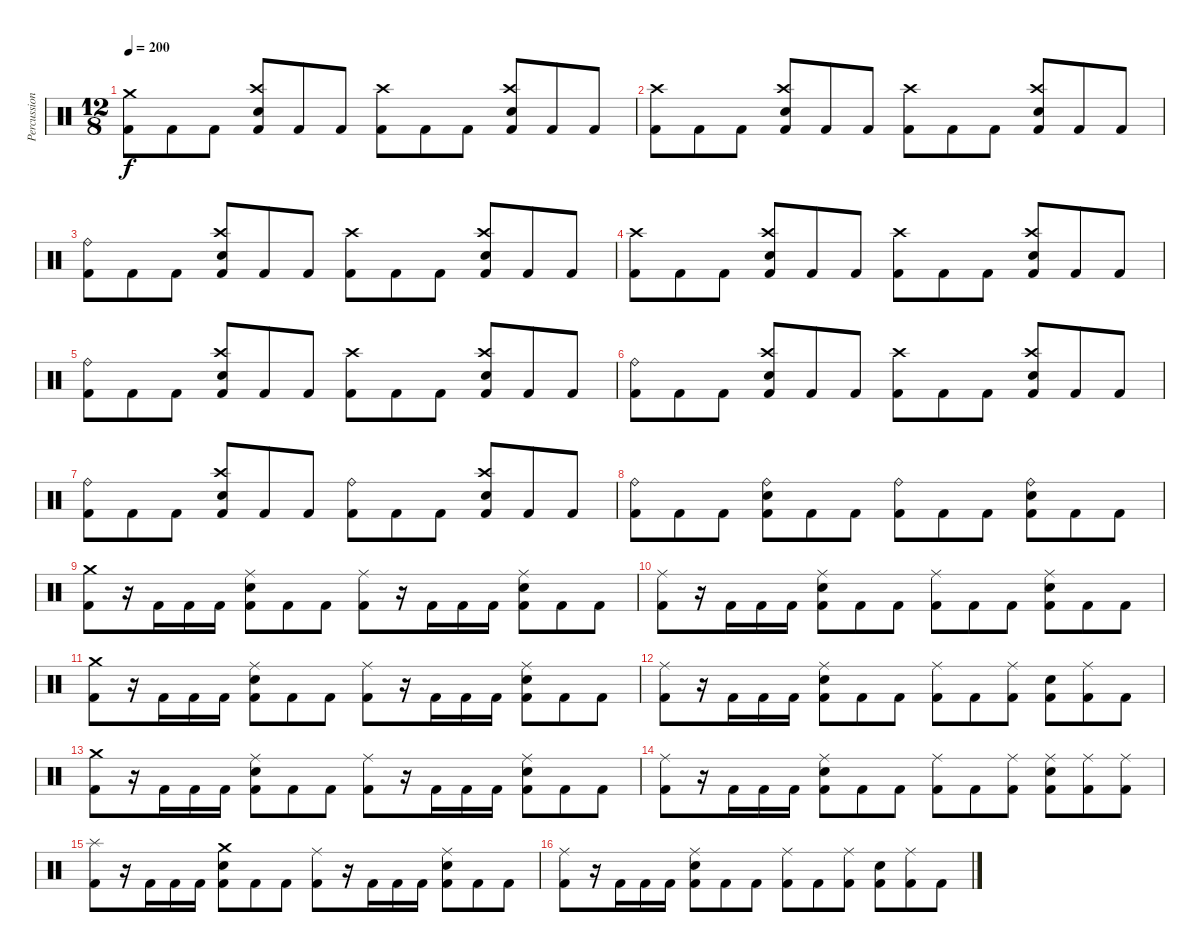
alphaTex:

\track ("Percussion" "Percussion") {instrument percussion}
\staff {score}
\articulation defaults
\ts (12 8)
\tempo 200
\clef neutral
\ks c
("Crash medium (hit)" "Kick (hit) 2").8{dy f} "Kick (hit) 2".8 "Kick (hit) 2".8 ("Crash high (hit)" "Snare (hit) 2" "Kick (hit) 2").8 "Kick (hit) 2".8 "Kick (hit) 2".8 ("Crash high (hit)" "Kick (hit) 2").8 "Kick (hit) 2".8 "Kick (hit) 2".8 ("Crash high (hit)" "Snare (hit) 2" "Kick (hit) 2").8 "Kick (hit) 2".8 "Kick (hit) 2".8 |
("Crash high (hit)" "Kick (hit) 2").8 "Kick (hit) 2".8 "Kick (hit) 2".8 ("Crash high (hit)" "Snare (hit) 2" "Kick (hit) 2").8 "Kick (hit) 2".8 "Kick (hit) 2".8 ("Crash high (hit)" "Kick (hit) 2").8 "Kick (hit) 2".8 "Kick (hit) 2".8 ("Crash high (hit)" "Snare (hit) 2" "Kick (hit) 2").8 "Kick (hit) 2".8 "Kick (hit) 2".8 |
("Ride (bell)" "Kick (hit) 2").8 "Kick (hit) 2".8 "Kick (hit) 2".8 ("Crash high (hit)" "Snare (hit) 2" "Kick (hit) 2").8 "Kick (hit) 2".8 "Kick (hit) 2".8 ("Crash high (hit)" "Kick (hit) 2").8 "Kick (hit) 2".8 "Kick (hit) 2".8 ("Crash high (hit)" "Snare (hit) 2" "Kick (hit) 2").8 "Kick (hit) 2".8 "Kick (hit) 2".8 |
("Crash high (hit)" "Kick (hit) 2").8 "Kick (hit) 2".8 "Kick (hit) 2".8 ("Crash high (hit)" "Snare (hit) 2" "Kick (hit) 2").8 "Kick (hit) 2".8 "Kick (hit) 2".8 ("Crash high (hit)" "Kick (hit) 2").8 "Kick (hit) 2".8 "Kick (hit) 2".8 ("Crash high (hit)" "Snare (hit) 2" "Kick (hit) 2").8 "Kick (hit) 2".8 "Kick (hit) 2".8 |
("Ride (bell)" "Kick (hit) 2").8 "Kick (hit) 2".8 "Kick (hit) 2".8 ("Crash high (hit)" "Snare (hit) 2" "Kick (hit) 2").8 "Kick (hit) 2".8 "Kick (hit) 2".8 ("Crash high (hit)" "Kick (hit) 2").8 "Kick (hit) 2".8 "Kick (hit) 2".8 ("Crash high (hit)" "Snare (hit) 2" "Kick (hit) 2").8 "Kick (hit) 2".8 "Kick (hit) 2".8 |
("Ride (bell)" "Kick (hit) 2").8 "Kick (hit) 2".8 "Kick (hit) 2".8 ("Crash high (hit)" "Snare (hit) 2" "Kick (hit) 2").8 "Kick (hit) 2".8 "Kick (hit) 2".8 ("Crash high (hit)" "Kick (hit) 2").8 "Kick (hit) 2".8 "Kick (hit) 2".8 ("Crash high (hit)" "Snare (hit) 2" "Kick (hit) 2").8 "Kick (hit) 2".8 "Kick (hit) 2".8 |
("Ride (bell)" "Kick (hit) 2").8 "Kick (hit) 2".8 "Kick (hit) 2".8 ("Crash high (hit)" "Snare (hit) 2" "Kick (hit) 2").8 "Kick (hit) 2".8 "Kick (hit) 2".8 ("Ride (bell)" "Kick (hit) 2").8 "Kick (hit) 2".8 "Kick (hit) 2".8 ("Crash high (hit)" "Snare (hit) 2" "Kick (hit) 2").8 "Kick (hit) 2".8 "Kick (hit) 2".8 |
("Ride (bell)" "Kick (hit) 2").8 "Kick (hit) 2".8 "Kick (hit) 2".8 ("Ride (bell)" "Snare (hit) 2" "Kick (hit) 2").8 "Kick (hit) 2".8 "Kick (hit) 2".8 ("Ride (bell)" "Kick (hit) 2").8 "Kick (hit) 2".8 "Kick (hit) 2".8 ("Ride (bell)" "Snare (hit) 2" "Kick (hit) 2").8 "Kick (hit) 2".8 "Kick (hit) 2".8 |
("Crash medium (hit)" "Kick (hit) 2").8 r.16 "Kick (hit) 2".16 "Kick (hit) 2".16 "Kick (hit) 2".16 ("Ride (middle)" "Snare (hit) 2" "Kick (hit) 2").8 "Kick (hit) 2".8 "Kick (hit) 2".8 ("Ride (middle)" "Kick (hit) 2").8 r.16 "Kick (hit) 2".16 "Kick (hit) 2".16 "Kick (hit) 2".16 ("Ride (middle)" "Snare (hit) 2" "Kick (hit) 2").8 "Kick (hit) 2".8 "Kick (hit) 2".8 |
("Ride (middle)" "Kick (hit) 2").8 r.16 "Kick (hit) 2".16 "Kick (hit) 2".16 "Kick (hit) 2".16 ("Ride (middle)" "Snare (hit) 2" "Kick (hit) 2").8 "Kick (hit) 2".8 "Kick (hit) 2".8 ("Ride (middle)" "Kick (hit) 2").8 "Kick (hit) 2".8 "Kick (hit) 2".8 ("Ride (middle)" "Snare (hit) 2" "Kick (hit) 2").8 "Kick (hit) 2".8 "Kick (hit) 2".8 |
("Crash medium (hit)" "Kick (hit) 2").8 r.16 "Kick (hit) 2".16 "Kick (hit) 2".16 "Kick (hit) 2".16 ("Ride (middle)" "Snare (hit) 2" "Kick (hit) 2").8 "Kick (hit) 2".8 "Kick (hit) 2".8 ("Ride (middle)" "Kick (hit) 2").8 r.16 "Kick (hit) 2".16 "Kick (hit) 2".16 "Kick (hit) 2".16 ("Ride (middle)" "Snare (hit) 2" "Kick (hit) 2").8 "Kick (hit) 2".8 "Kick (hit) 2".8 |
("Ride (middle)" "Kick (hit) 2").8 r.16 "Kick (hit) 2".16 "Kick (hit) 2".16 "Kick (hit) 2".16 ("Ride (middle)" "Snare (hit) 2" "Kick (hit) 2").8 "Kick (hit) 2".8 "Kick (hit) 2".8 ("Ride (middle)" "Kick (hit) 2").8 "Kick (hit) 2".8 ("Ride (middle)" "Kick (hit) 2").8 ("Snare (hit) 2" "Kick (hit) 2").8 ("Ride (middle)" "Kick (hit) 2").8 "Kick (hit) 2".8 |
("Crash medium (hit)" "Kick (hit) 2").8 r.16 "Kick (hit) 2".16 "Kick (hit) 2".16 "Kick (hit) 2".16 ("Ride (middle)" "Snare (hit) 2" "Kick (hit) 2").8 "Kick (hit) 2".8 "Kick (hit) 2".8 ("Ride (middle)" "Kick (hit) 2").8 r.16 "Kick (hit) 2".16 "Kick (hit) 2".16 "Kick (hit) 2".16 ("Ride (middle)" "Snare (hit) 2" "Kick (hit) 2").8 "Kick (hit) 2".8 "Kick (hit) 2".8 |
("Ride (middle)" "Kick (hit) 2").8 r.16 "Kick (hit) 2".16 "Kick (hit) 2".16 "Kick (hit) 2".16 ("Ride (middle)" "Snare (hit) 2" "Kick (hit) 2").8 "Kick (hit) 2".8 "Kick (hit) 2".8 ("Ride (middle)" "Kick (hit) 2").8 "Kick (hit) 2".8 ("Ride (middle)" "Kick (hit) 2").8 ("Ride (middle)" "Snare (hit) 2" "Kick (hit) 2").8 ("Ride (middle)" "Kick (hit) 2").8 ("Ride (middle)" "Kick (hit) 2").8 |
("Splash (hit)" "Kick (hit) 2").8 r.16 "Kick (hit) 2".16 "Kick (hit) 2".16 "Kick (hit) 2".16 ("Crash medium (hit)" "Snare (hit) 2" "Kick (hit) 2").8 "Kick (hit) 2".8 "Kick (hit) 2".8 ("Ride (middle)" "Kick (hit) 2").8 r.16 "Kick (hit) 2".16 "Kick (hit) 2".16 "Kick (hit) 2".16 ("Ride (middle)" "Snare (hit) 2" "Kick (hit) 2").8 "Kick (hit) 2".8 "Kick (hit) 2".8 |
("Ride (middle)" "Kick (hit) 2").8 r.16 "Kick (hit) 2".16 "Kick (hit) 2".16 "Kick (hit) 2".16 ("Ride (middle)" "Snare (hit) 2" "Kick (hit) 2").8 "Kick (hit) 2".8 "Kick (hit) 2".8 ("Ride (middle)" "Kick (hit) 2").8 "Kick (hit) 2".8 ("Ride (middle)" "Kick (hit) 2").8 ("Snare (hit) 2" "Kick (hit) 2").8 ("Ride (middle)" "Kick (hit) 2").8 "Kick (hit) 2".8
